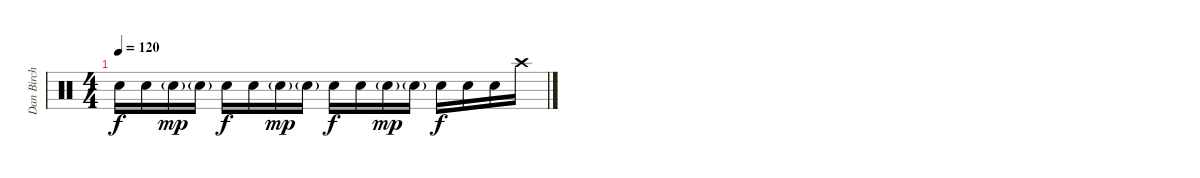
\track ("Dan Birch" "Dan Birch") {instrument percussion}
\staff {score}
\articulation defaults
\ts (4 4)
\tempo 120
\clef neutral
\ks c "Snare (hit) 2".16{dy f} "Snare (hit) 2".16 "Snare (hit) 2"{g}.16{dy mp} "Snare (hit) 2"{g}.16 "Snare (hit) 2".16{dy f} "Snare (hit) 2".16 "Snare (hit) 2"{g}.16{dy mp} "Snare (hit) 2"{g}.16 "Snare (hit) 2".16{dy f} "Snare (hit) 2".16 "Snare (hit) 2"{g}.16{dy mp} "Snare (hit) 2"{g}.16 "Snare (hit) 2".16{dy f} "Snare (hit) 2".16 "Snare (hit) 2".16 "Crash high (hit)".16
